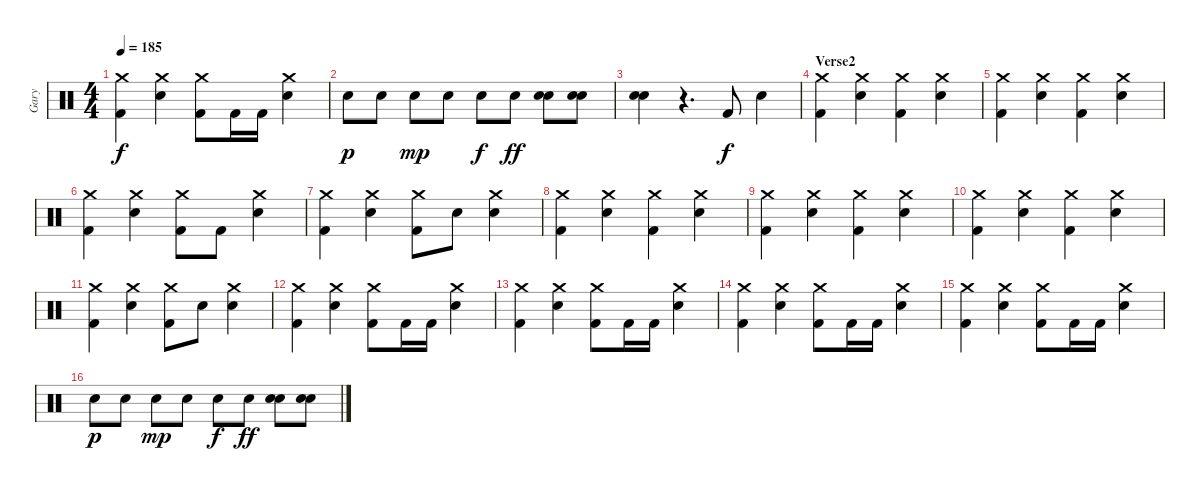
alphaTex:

\track ("Gary" "Gary") {instrument percussion}
\staff {score}
\articulation defaults
\ts (4 4)
\tempo 185
\clef neutral
\ks c
("Kick (hit) 2" "Crash medium (hit)").4{dy f} ("Electric Snare (hit)" "Crash medium (hit)").4 ("Kick (hit) 2" "Crash medium (hit)").8 "Kick (hit) 2".16 "Kick (hit) 2".16 ("Electric Snare (hit)" "Crash medium (hit)").4 |
"Electric Snare (hit)".8{dy p} "Electric Snare (hit)".8 "Electric Snare (hit)".8{dy mp} "Electric Snare (hit)".8 "Electric Snare (hit)".8{dy f} "Electric Snare (hit)".8{dy ff} ("Electric Snare (hit)" "Electric Snare (hit)").8 ("Electric Snare (hit)" "Electric Snare (hit)").8 |
("Electric Snare (hit)" "Electric Snare (hit)").4 r.4{d} "Kick (hit) 2".8{dy f} "Electric Snare (hit)".4 |
\section ("" "Verse2")
("Kick (hit) 2" "Crash medium (hit)").4 ("Electric Snare (hit)" "Crash medium (hit)").4 ("Kick (hit) 2" "Crash medium (hit)").4 ("Electric Snare (hit)" "Crash medium (hit)").4 |
("Kick (hit) 2" "Crash medium (hit)").4 ("Electric Snare (hit)" "Crash medium (hit)").4 ("Kick (hit) 2" "Crash medium (hit)").4 ("Electric Snare (hit)" "Crash medium (hit)").4 |
("Kick (hit) 2" "Crash medium (hit)").4 ("Electric Snare (hit)" "Crash medium (hit)").4 ("Kick (hit) 2" "Crash medium (hit)").8 "Kick (hit) 2".8 ("Electric Snare (hit)" "Crash medium (hit)").4 |
("Kick (hit) 2" "Crash medium (hit)").4 ("Electric Snare (hit)" "Crash medium (hit)").4 ("Kick (hit) 2" "Crash medium (hit)").8 "Electric Snare (hit)".8 ("Electric Snare (hit)" "Crash medium (hit)").4 |
("Kick (hit) 2" "Crash medium (hit)").4 ("Electric Snare (hit)" "Crash medium (hit)").4 ("Kick (hit) 2" "Crash medium (hit)").4 ("Electric Snare (hit)" "Crash medium (hit)").4 |
("Kick (hit) 2" "Crash medium (hit)").4 ("Electric Snare (hit)" "Crash medium (hit)").4 ("Kick (hit) 2" "Crash medium (hit)").4 ("Electric Snare (hit)" "Crash medium (hit)").4 |
("Kick (hit) 2" "Crash medium (hit)").4 ("Electric Snare (hit)" "Crash medium (hit)").4 ("Kick (hit) 2" "Crash medium (hit)").4 ("Electric Snare (hit)" "Crash medium (hit)").4 |
("Kick (hit) 2" "Crash medium (hit)").4 ("Electric Snare (hit)" "Crash medium (hit)").4 ("Kick (hit) 2" "Crash medium (hit)").8 "Electric Snare (hit)".8 ("Electric Snare (hit)" "Crash medium (hit)").4 |
("Kick (hit) 2" "Crash medium (hit)").4 ("Electric Snare (hit)" "Crash medium (hit)").4 ("Kick (hit) 2" "Crash medium (hit)").8 "Kick (hit) 2".16 "Kick (hit) 2".16 ("Electric Snare (hit)" "Crash medium (hit)").4 |
("Kick (hit) 2" "Crash medium (hit)").4 ("Electric Snare (hit)" "Crash medium (hit)").4 ("Kick (hit) 2" "Crash medium (hit)").8 "Kick (hit) 2".16 "Kick (hit) 2".16 ("Electric Snare (hit)" "Crash medium (hit)").4 |
("Kick (hit) 2" "Crash medium (hit)").4 ("Electric Snare (hit)" "Crash medium (hit)").4 ("Kick (hit) 2" "Crash medium (hit)").8 "Kick (hit) 2".16 "Kick (hit) 2".16 ("Electric Snare (hit)" "Crash medium (hit)").4 |
("Kick (hit) 2" "Crash medium (hit)").4 ("Electric Snare (hit)" "Crash medium (hit)").4 ("Kick (hit) 2" "Crash medium (hit)").8 "Kick (hit) 2".16 "Kick (hit) 2".16 ("Electric Snare (hit)" "Crash medium (hit)").4 |
"Electric Snare (hit)".8{dy p} "Electric Snare (hit)".8 "Electric Snare (hit)".8{dy mp} "Electric Snare (hit)".8 "Electric Snare (hit)".8{dy f} "Electric Snare (hit)".8{dy ff} ("Electric Snare (hit)" "Electric Snare (hit)").8 ("Electric Snare (hit)" "Electric Snare (hit)").8
